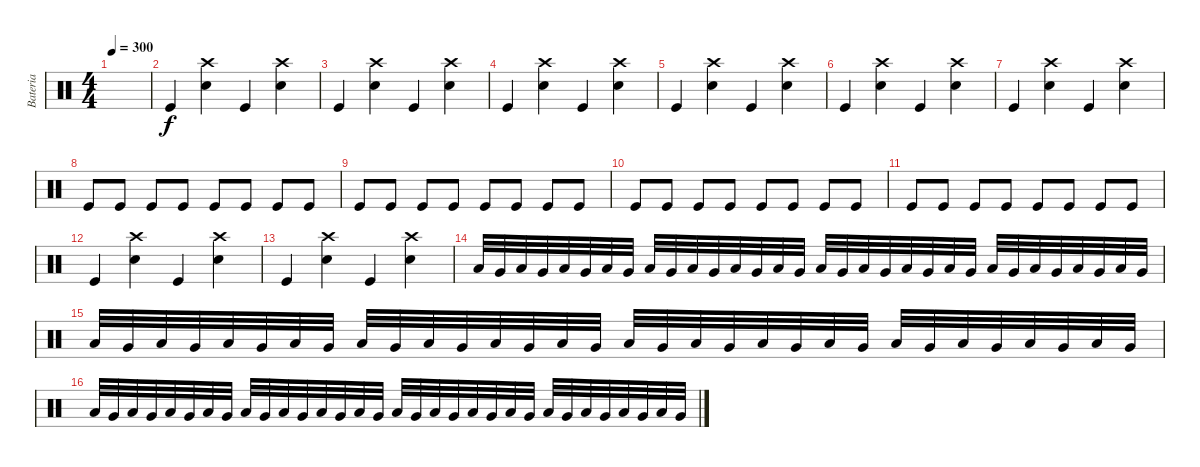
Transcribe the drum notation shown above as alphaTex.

\track ("Bateria" "Bateria") {instrument percussion}
\staff {score}
\articulation defaults
\ts (4 4)
\tempo 300
\clef neutral
\ks c
|
"Kick (hit)".4 ("Electric Snare (hit)" "Crash high (hit)").4 "Kick (hit)".4 ("Electric Snare (hit)" "Crash high (hit)").4 |
"Kick (hit)".4 ("Electric Snare (hit)" "Crash high (hit)").4 "Kick (hit)".4 ("Electric Snare (hit)" "Crash high (hit)").4 |
"Kick (hit)".4 ("Electric Snare (hit)" "Crash high (hit)").4 "Kick (hit)".4 ("Electric Snare (hit)" "Crash high (hit)").4 |
"Kick (hit)".4 ("Electric Snare (hit)" "Crash high (hit)").4 "Kick (hit)".4 ("Electric Snare (hit)" "Crash high (hit)").4 |
"Kick (hit)".4 ("Electric Snare (hit)" "Crash high (hit)").4 "Kick (hit)".4 ("Electric Snare (hit)" "Crash high (hit)").4 |
"Kick (hit)".4 ("Electric Snare (hit)" "Crash high (hit)").4 "Kick (hit)".4 ("Electric Snare (hit)" "Crash high (hit)").4 |
"Kick (hit)".8 "Kick (hit)".8 "Kick (hit)".8 "Kick (hit)".8 "Kick (hit)".8 "Kick (hit)".8 "Kick (hit)".8 "Kick (hit)".8 |
"Kick (hit)".8 "Kick (hit)".8 "Kick (hit)".8 "Kick (hit)".8 "Kick (hit)".8 "Kick (hit)".8 "Kick (hit)".8 "Kick (hit)".8 |
"Kick (hit)".8 "Kick (hit)".8 "Kick (hit)".8 "Kick (hit)".8 "Kick (hit)".8 "Kick (hit)".8 "Kick (hit)".8 "Kick (hit)".8 |
"Kick (hit)".8 "Kick (hit)".8 "Kick (hit)".8 "Kick (hit)".8 "Kick (hit)".8 "Kick (hit)".8 "Kick (hit)".8 "Kick (hit)".8 |
"Kick (hit)".4 ("Electric Snare (hit)" "Crash high (hit)").4 "Kick (hit)".4 ("Electric Snare (hit)" "Crash high (hit)").4 |
"Kick (hit)".4 ("Electric Snare (hit)" "Crash high (hit)").4 "Kick (hit)".4 ("Electric Snare (hit)" "Crash high (hit)").4 |
"Low Tom (hit)".32 "Very Low Tom (hit)".32 "Low Tom (hit)".32 "Very Low Tom (hit)".32 "Low Tom (hit)".32 "Very Low Tom (hit)".32 "Low Tom (hit)".32 "Very Low Tom (hit)".32 "Low Tom (hit)".32 "Very Low Tom (hit)".32 "Low Tom (hit)".32 "Very Low Tom (hit)".32 "Low Tom (hit)".32 "Very Low Tom (hit)".32 "Low Tom (hit)".32 "Very Low Tom (hit)".32 "Low Tom (hit)".32 "Very Low Tom (hit)".32 "Low Tom (hit)".32 "Very Low Tom (hit)".32 "Low Tom (hit)".32 "Very Low Tom (hit)".32 "Low Tom (hit)".32 "Very Low Tom (hit)".32 "Low Tom (hit)".32 "Very Low Tom (hit)".32 "Low Tom (hit)".32 "Very Low Tom (hit)".32 "Low Tom (hit)".32 "Very Low Tom (hit)".32 "Low Tom (hit)".32 "Very Low Tom (hit)".32 |
"Low Tom (hit)".32 "Very Low Tom (hit)".32 "Low Tom (hit)".32 "Very Low Tom (hit)".32 "Low Tom (hit)".32 "Very Low Tom (hit)".32 "Low Tom (hit)".32 "Very Low Tom (hit)".32 "Low Tom (hit)".32 "Very Low Tom (hit)".32 "Low Tom (hit)".32 "Very Low Tom (hit)".32 "Low Tom (hit)".32 "Very Low Tom (hit)".32 "Low Tom (hit)".32 "Very Low Tom (hit)".32 "Low Tom (hit)".32 "Very Low Tom (hit)".32 "Low Tom (hit)".32 "Very Low Tom (hit)".32 "Low Tom (hit)".32 "Very Low Tom (hit)".32 "Low Tom (hit)".32 "Very Low Tom (hit)".32 "Low Tom (hit)".32 "Very Low Tom (hit)".32 "Low Tom (hit)".32 "Very Low Tom (hit)".32 "Low Tom (hit)".32 "Very Low Tom (hit)".32 "Low Tom (hit)".32 "Very Low Tom (hit)".32 |
"Low Tom (hit)".32 "Very Low Tom (hit)".32 "Low Tom (hit)".32 "Very Low Tom (hit)".32 "Low Tom (hit)".32 "Very Low Tom (hit)".32 "Low Tom (hit)".32 "Very Low Tom (hit)".32 "Low Tom (hit)".32 "Very Low Tom (hit)".32 "Low Tom (hit)".32 "Very Low Tom (hit)".32 "Low Tom (hit)".32 "Very Low Tom (hit)".32 "Low Tom (hit)".32 "Very Low Tom (hit)".32 "Low Tom (hit)".32 "Very Low Tom (hit)".32 "Low Tom (hit)".32 "Very Low Tom (hit)".32 "Low Tom (hit)".32 "Very Low Tom (hit)".32 "Low Tom (hit)".32 "Very Low Tom (hit)".32 "Low Tom (hit)".32 "Very Low Tom (hit)".32 "Low Tom (hit)".32 "Very Low Tom (hit)".32 "Low Tom (hit)".32 "Very Low Tom (hit)".32 "Low Tom (hit)".32 "Very Low Tom (hit)".32
